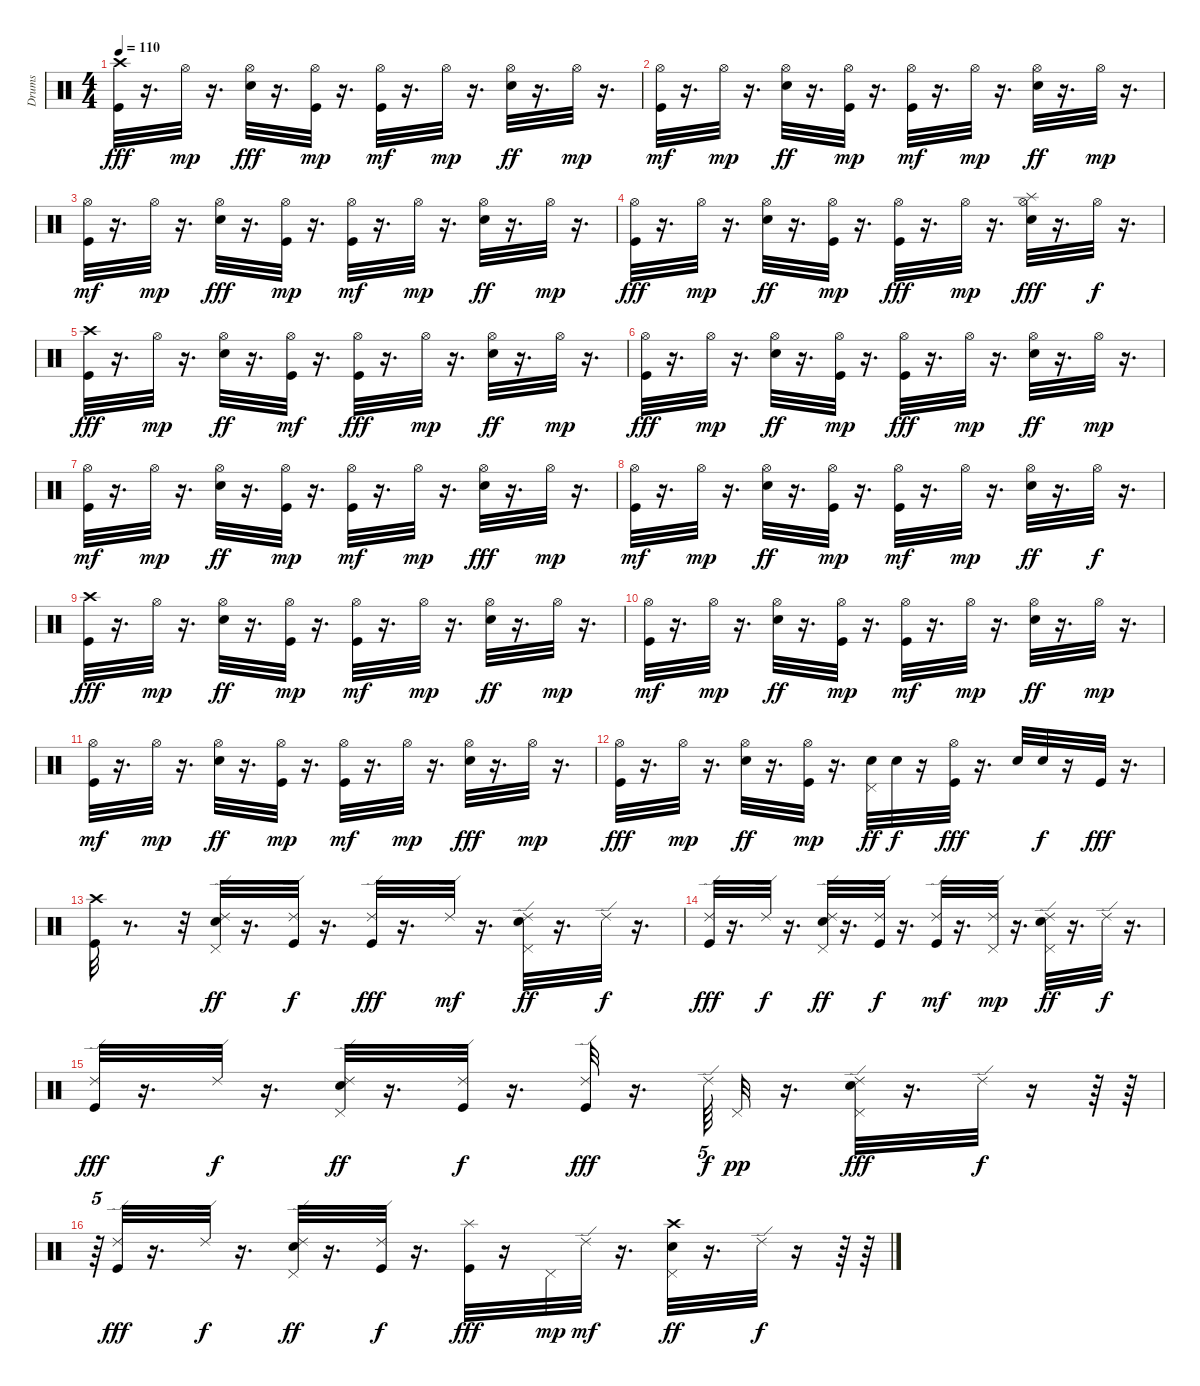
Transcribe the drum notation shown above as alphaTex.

\track ("Drums" "Drums") {instrument percussion}
\staff {score}
\articulation defaults
\ts (4 4)
\tempo 110
\clef neutral
\ks c
("Kick (hit)" "Crash high (hit)").32{dy fff} r.16{d} "Hi-Hat (open)".32{dy mp} r.16{d} ("Electric Snare (hit)" "Hi-Hat (open)").32{dy fff} r.16{d} ("Kick (hit)" "Hi-Hat (open)").32{dy mp} r.16{d} ("Kick (hit)" "Hi-Hat (open)").32{dy mf} r.16{d} "Hi-Hat (open)".32{dy mp} r.16{d} ("Electric Snare (hit)" "Hi-Hat (open)").32{dy ff} r.16{d} "Hi-Hat (open)".32{dy mp} r.16{d} |
("Kick (hit)" "Hi-Hat (open)").32{dy mf} r.16{d} "Hi-Hat (open)".32{dy mp} r.16{d} ("Electric Snare (hit)" "Hi-Hat (open)").32{dy ff} r.16{d} ("Kick (hit)" "Hi-Hat (open)").32{dy mp} r.16{d} ("Kick (hit)" "Hi-Hat (open)").32{dy mf} r.16{d} "Hi-Hat (open)".32{dy mp} r.16{d} ("Electric Snare (hit)" "Hi-Hat (open)").32{dy ff} r.16{d} "Hi-Hat (open)".32{dy mp} r.16{d} |
("Kick (hit)" "Hi-Hat (open)").32{dy mf} r.16{d} "Hi-Hat (open)".32{dy mp} r.16{d} ("Electric Snare (hit)" "Hi-Hat (open)").32{dy fff} r.16{d} ("Kick (hit)" "Hi-Hat (open)").32{dy mp} r.16{d} ("Kick (hit)" "Hi-Hat (open)").32{dy mf} r.16{d} "Hi-Hat (open)".32{dy mp} r.16{d} ("Electric Snare (hit)" "Hi-Hat (open)").32{dy ff} r.16{d} "Hi-Hat (open)".32{dy mp} r.16{d} |
("Kick (hit)" "Hi-Hat (open)").32{dy fff} r.16{d} "Hi-Hat (open)".32{dy mp} r.16{d} ("Electric Snare (hit)" "Hi-Hat (open)").32{dy ff} r.16{d} ("Kick (hit)" "Hi-Hat (open)").32{dy mp} r.16{d} ("Kick (hit)" "Hi-Hat (open)").32{dy fff} r.16{d} "Hi-Hat (open)".32{dy mp} r.16{d} ("Electric Snare (hit)" "Hi-Hat (open)" "Splash (hit)").32{dy fff} r.16{d} "Hi-Hat (open)".32{dy f} r.16{d} |
("Kick (hit)" "Crash high (hit)").32{dy fff} r.16{d} "Hi-Hat (open)".32{dy mp} r.16{d} ("Electric Snare (hit)" "Hi-Hat (open)").32{dy ff} r.16{d} ("Kick (hit)" "Hi-Hat (open)").32{dy mf} r.16{d} ("Kick (hit)" "Hi-Hat (open)").32{dy fff} r.16{d} "Hi-Hat (open)".32{dy mp} r.16{d} ("Electric Snare (hit)" "Hi-Hat (open)").32{dy ff} r.16{d} "Hi-Hat (open)".32{dy mp} r.16{d} |
("Kick (hit)" "Hi-Hat (open)").32{dy fff} r.16{d} "Hi-Hat (open)".32{dy mp} r.16{d} ("Electric Snare (hit)" "Hi-Hat (open)").32{dy ff} r.16{d} ("Kick (hit)" "Hi-Hat (open)").32{dy mp} r.16{d} ("Kick (hit)" "Hi-Hat (open)").32{dy fff} r.16{d} "Hi-Hat (open)".32{dy mp} r.16{d} ("Electric Snare (hit)" "Hi-Hat (open)").32{dy ff} r.16{d} "Hi-Hat (open)".32{dy mp} r.16{d} |
("Kick (hit)" "Hi-Hat (open)").32{dy mf} r.16{d} "Hi-Hat (open)".32{dy mp} r.16{d} ("Electric Snare (hit)" "Hi-Hat (open)").32{dy ff} r.16{d} ("Kick (hit)" "Hi-Hat (open)").32{dy mp} r.16{d} ("Kick (hit)" "Hi-Hat (open)").32{dy mf} r.16{d} "Hi-Hat (open)".32{dy mp} r.16{d} ("Electric Snare (hit)" "Hi-Hat (open)").32{dy fff} r.16{d} "Hi-Hat (open)".32{dy mp} r.16{d} |
("Kick (hit)" "Hi-Hat (open)").32{dy mf} r.16{d} "Hi-Hat (open)".32{dy mp} r.16{d} ("Electric Snare (hit)" "Hi-Hat (open)").32{dy ff} r.16{d} ("Kick (hit)" "Hi-Hat (open)").32{dy mp} r.16{d} ("Kick (hit)" "Hi-Hat (open)").32{dy mf} r.16{d} "Hi-Hat (open)".32{dy mp} r.16{d} ("Electric Snare (hit)" "Hi-Hat (open)").32{dy ff} r.16{d} "Hi-Hat (open)".32{dy f} r.16{d} |
("Kick (hit)" "Crash high (hit)").32{dy fff} r.16{d} "Hi-Hat (open)".32{dy mp} r.16{d} ("Electric Snare (hit)" "Hi-Hat (open)").32{dy ff} r.16{d} ("Kick (hit)" "Hi-Hat (open)").32{dy mp} r.16{d} ("Kick (hit)" "Hi-Hat (open)").32{dy mf} r.16{d} "Hi-Hat (open)".32{dy mp} r.16{d} ("Electric Snare (hit)" "Hi-Hat (open)").32{dy ff} r.16{d} "Hi-Hat (open)".32{dy mp} r.16{d} |
("Kick (hit)" "Hi-Hat (open)").32{dy mf} r.16{d} "Hi-Hat (open)".32{dy mp} r.16{d} ("Electric Snare (hit)" "Hi-Hat (open)").32{dy ff} r.16{d} ("Kick (hit)" "Hi-Hat (open)").32{dy mp} r.16{d} ("Kick (hit)" "Hi-Hat (open)").32{dy mf} r.16{d} "Hi-Hat (open)".32{dy mp} r.16{d} ("Electric Snare (hit)" "Hi-Hat (open)").32{dy ff} r.16{d} "Hi-Hat (open)".32{dy mp} r.16{d} |
("Kick (hit)" "Hi-Hat (open)").32{dy mf} r.16{d} "Hi-Hat (open)".32{dy mp} r.16{d} ("Electric Snare (hit)" "Hi-Hat (open)").32{dy ff} r.16{d} ("Kick (hit)" "Hi-Hat (open)").32{dy mp} r.16{d} ("Kick (hit)" "Hi-Hat (open)").32{dy mf} r.16{d} "Hi-Hat (open)".32{dy mp} r.16{d} ("Electric Snare (hit)" "Hi-Hat (open)").32{dy fff} r.16{d} "Hi-Hat (open)".32{dy mp} r.16{d} |
("Kick (hit)" "Hi-Hat (open)").32{dy fff} r.16{d} "Hi-Hat (open)".32{dy mp} r.16{d} ("Electric Snare (hit)" "Hi-Hat (open)").32{dy ff} r.16{d} ("Kick (hit)" "Hi-Hat (open)").32{dy mp} r.16{d} ("Electric Snare (hit)" "Pedal Hi-Hat (hit)").32{dy ff} "Electric Snare (hit)".32{dy f} r.16 ("Kick (hit)" "Hi-Hat (open)").32{dy fff} r.16{d} "Electric Snare (hit)".32 "Electric Snare (hit)".32{dy f} r.16 "Kick (hit)".32{dy fff} r.16{d} |
("Kick (hit)" "Crash high (hit)").32 r.8{d} r.32 ("Pedal Hi-Hat (hit)" "Electric Snare (hit)" "Ride (edge) 2").32{dy ff} r.16{d} ("Kick (hit)" "Ride (edge) 2").32{dy f} r.16{d} ("Ride (edge) 2" "Kick (hit)").32{dy fff} r.16{d} "Ride (edge) 2".32{dy mf} r.16{d} ("Electric Snare (hit)" "Ride (edge) 2" "Pedal Hi-Hat (hit)").32{dy ff} r.16{d} "Ride (edge) 2".32{dy f} r.16{d} |
("Ride (edge) 2" "Kick (hit)").32{dy fff} r.16{d} "Ride (edge) 2".32{dy f} r.16{d} ("Ride (edge) 2" "Electric Snare (hit)" "Pedal Hi-Hat (hit)").32{dy ff} r.16{d} ("Ride (edge) 2" "Kick (hit)").32{dy f} r.16{d} ("Kick (hit)" "Ride (edge) 2").32{dy mf} r.16{d} ("Pedal Hi-Hat (hit)" "Ride (edge) 2").32{dy mp} r.16{d} ("Ride (edge) 2" "Electric Snare (hit)" "Pedal Hi-Hat (hit)").32{dy ff} r.16{d} "Ride (edge) 2".32{dy f} r.16{d} |
("Kick (hit)" "Ride (edge) 2").32{dy fff} r.16{d} "Ride (edge) 2".32{dy f} r.16{d} ("Electric Snare (hit)" "Pedal Hi-Hat (hit)" "Ride (edge) 2").32{dy ff} r.16{d} ("Ride (edge) 2" "Kick (hit)").32{dy f} r.16{d} ("Ride (edge) 2" "Kick (hit)").32{dy fff} r.16{d} "Ride (edge) 2".64{tu (5 4) dy f} "Pedal Hi-Hat (hit)".32{dy pp} r.16{d} ("Ride (edge) 2" "Electric Snare (hit)" "Pedal Hi-Hat (hit)").32{dy fff} r.16{d} "Ride (edge) 2".32{dy f} r.16 r.64 r.64 |
r.64{tu (5 4)} ("Ride (edge) 2" "Kick (hit)").32{dy fff} r.16{d} "Ride (edge) 2".32{dy f} r.16{d} ("Ride (edge) 2" "Electric Snare (hit)" "Pedal Hi-Hat (hit)").32{dy ff} r.16{d} ("Ride (edge) 2" "Kick (hit)").32{dy f} r.16{d} ("Kick (hit)" "Splash (hit)").32{dy fff} r.16 "Pedal Hi-Hat (hit)".32{dy mp} "Ride (edge) 2".32{dy mf} r.16{d} ("Pedal Hi-Hat (hit)" "Electric Snare (hit)" "Crash high (hit)").32{dy ff} r.16{d} "Ride (edge) 2".32{dy f} r.16 r.64 r.64
